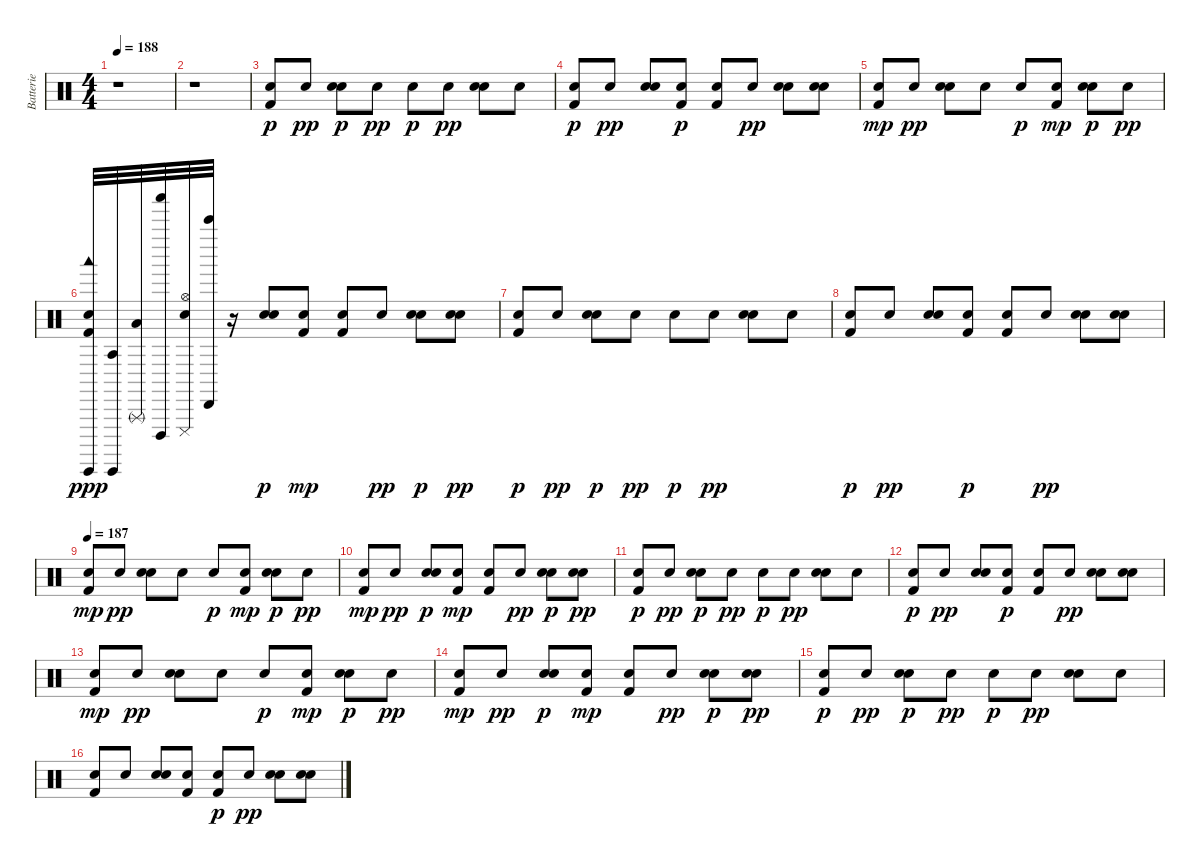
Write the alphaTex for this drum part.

\track ("Batterie            " "Batterie  ") {instrument percussion}
\staff {score}
\articulation defaults
\ts (4 4)
\tempo 188
\clef neutral
\ks c
r.1{dy p} |
r.1 |
("Snare (hit) 2" "Kick (hit) 2").8 "Snare (hit) 2".8{dy pp} ("Hand Clap (hit)" "Snare (hit) 2").8{dy p} "Snare (hit) 2".8{dy pp} "Snare (hit) 2".8{dy p} "Snare (hit) 2".8{dy pp} ("Hand Clap (hit)" "Snare (hit) 2").8 "Snare (hit) 2".8 |
("Snare (hit) 2" "Kick (hit) 2").8{dy p} "Snare (hit) 2".8{dy pp} ("Hand Clap (hit)" "Snare (hit) 2").8 ("Snare (hit) 2" "Kick (hit) 2").8{dy p} ("Snare (hit) 2" "Kick (hit) 2").8 "Snare (hit) 2".8{dy pp} ("Hand Clap (hit)" "Snare (hit) 2").8 ("Hand Clap (hit)" "Snare (hit) 2").8 |
("Snare (hit) 2" "Kick (hit) 2").8{dy mp} "Snare (hit) 2".8{dy pp} ("Hand Clap (hit)" "Snare (hit) 2").8 "Snare (hit) 2".8 "Snare (hit) 2".8{dy p} ("Snare (hit) 2" "Kick (hit) 2").8{dy mp} ("Hand Clap (hit)" "Snare (hit) 2").8{dy p} "Snare (hit) 2".8{dy pp} |
("Snare (hit) 2" "Kick (hit) 2" "Woodblock low (hit)" "Guiro (hit)").32{dy ppp} ("Agogo tow (hit)" "Guiro (hit)").32 ("Low Tom (hit)" "Triangle (rnute)").32 ("Shaker (hit)" "Cuica (open)").32 ("Snare (hit) 2" "Hi-Hat (open)" "Cuica (mute)").32 ("Cabasa (hit)" "Bell Tree (hit)").32 r.16 ("Hand Clap (hit)" "Snare (hit) 2").8{dy p} ("Snare (hit) 2" "Kick (hit) 2").8{dy mp} ("Snare (hit) 2" "Kick (hit) 2").8 "Snare (hit) 2".8{dy pp} ("Hand Clap (hit)" "Snare (hit) 2").8{dy p} ("Hand Clap (hit)" "Snare (hit) 2").8{dy pp} |
("Snare (hit) 2" "Kick (hit) 2").8{dy p} "Snare (hit) 2".8{dy pp} ("Hand Clap (hit)" "Snare (hit) 2").8{dy p} "Snare (hit) 2".8{dy pp} "Snare (hit) 2".8{dy p} "Snare (hit) 2".8{dy pp} ("Hand Clap (hit)" "Snare (hit) 2").8 "Snare (hit) 2".8 |
("Snare (hit) 2" "Kick (hit) 2").8{dy p} "Snare (hit) 2".8{dy pp} ("Hand Clap (hit)" "Snare (hit) 2").8 ("Snare (hit) 2" "Kick (hit) 2").8{dy p} ("Snare (hit) 2" "Kick (hit) 2").8 "Snare (hit) 2".8{dy pp} ("Hand Clap (hit)" "Snare (hit) 2").8 ("Hand Clap (hit)" "Snare (hit) 2").8 |
\tempo 187
("Snare (hit) 2" "Kick (hit) 2").8{dy mp} "Snare (hit) 2".8{dy pp} ("Hand Clap (hit)" "Snare (hit) 2").8 "Snare (hit) 2".8 "Snare (hit) 2".8{dy p} ("Snare (hit) 2" "Kick (hit) 2").8{dy mp} ("Hand Clap (hit)" "Snare (hit) 2").8{dy p} "Snare (hit) 2".8{dy pp} |
("Snare (hit) 2" "Kick (hit) 2").8{dy mp} "Snare (hit) 2".8{dy pp} ("Hand Clap (hit)" "Snare (hit) 2").8{dy p} ("Snare (hit) 2" "Kick (hit) 2").8{dy mp} ("Snare (hit) 2" "Kick (hit) 2").8 "Snare (hit) 2".8{dy pp} ("Hand Clap (hit)" "Snare (hit) 2").8{dy p} ("Hand Clap (hit)" "Snare (hit) 2").8{dy pp} |
("Snare (hit) 2" "Kick (hit) 2").8{dy p} "Snare (hit) 2".8{dy pp} ("Hand Clap (hit)" "Snare (hit) 2").8{dy p} "Snare (hit) 2".8{dy pp} "Snare (hit) 2".8{dy p} "Snare (hit) 2".8{dy pp} ("Hand Clap (hit)" "Snare (hit) 2").8 "Snare (hit) 2".8 |
("Snare (hit) 2" "Kick (hit) 2").8{dy p} "Snare (hit) 2".8{dy pp} ("Hand Clap (hit)" "Snare (hit) 2").8 ("Snare (hit) 2" "Kick (hit) 2").8{dy p} ("Snare (hit) 2" "Kick (hit) 2").8 "Snare (hit) 2".8{dy pp} ("Hand Clap (hit)" "Snare (hit) 2").8 ("Hand Clap (hit)" "Snare (hit) 2").8 |
("Snare (hit) 2" "Kick (hit) 2").8{dy mp} "Snare (hit) 2".8{dy pp} ("Hand Clap (hit)" "Snare (hit) 2").8 "Snare (hit) 2".8 "Snare (hit) 2".8{dy p} ("Snare (hit) 2" "Kick (hit) 2").8{dy mp} ("Hand Clap (hit)" "Snare (hit) 2").8{dy p} "Snare (hit) 2".8{dy pp} |
("Snare (hit) 2" "Kick (hit) 2").8{dy mp} "Snare (hit) 2".8{dy pp} ("Hand Clap (hit)" "Snare (hit) 2").8{dy p} ("Snare (hit) 2" "Kick (hit) 2").8{dy mp} ("Snare (hit) 2" "Kick (hit) 2").8 "Snare (hit) 2".8{dy pp} ("Hand Clap (hit)" "Snare (hit) 2").8{dy p} ("Hand Clap (hit)" "Snare (hit) 2").8{dy pp} |
("Kick (hit) 2" "Snare (hit) 2").8{dy p} "Snare (hit) 2".8{dy pp} ("Hand Clap (hit)" "Snare (hit) 2").8{dy p} "Snare (hit) 2".8{dy pp} "Snare (hit) 2".8{dy p} "Snare (hit) 2".8{dy pp} ("Hand Clap (hit)" "Snare (hit) 2").8 "Snare (hit) 2".8 |
("Kick (hit) 2" "Snare (hit) 2").8 "Snare (hit) 2".8 ("Hand Clap (hit)" "Snare (hit) 2").8 ("Kick (hit) 2" "Snare (hit) 2").8 ("Kick (hit) 2" "Snare (hit) 2").8{dy p} "Snare (hit) 2".8{dy pp} ("Hand Clap (hit)" "Snare (hit) 2").8 ("Hand Clap (hit)" "Snare (hit) 2").8
